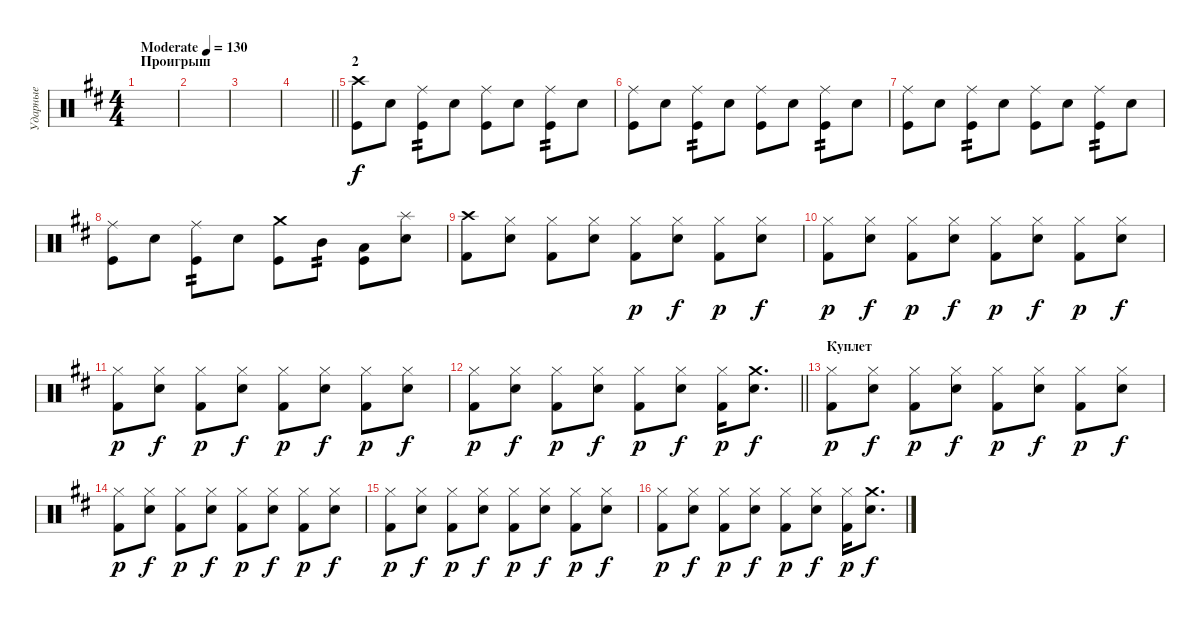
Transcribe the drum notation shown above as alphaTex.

\track ("Ударные" "Ударные") {instrument percussion}
\staff {score}
\articulation defaults
\ts (4 4)
\section ("" "Проигрыш")
\tempo (130 "Moderate")
\clef neutral
\ks bminor
|
|
|
\barLineRight lightlight
|
\section ("" "2")
("Crash high (hit)" "Kick (hit)").8 "Snare (hit) 2".8 ("Ride (middle)" "Kick (hit)").8{tp 2} "Snare (hit) 2".8 ("Ride (middle)" "Kick (hit)").8 "Snare (hit) 2".8 ("Ride (middle)" "Kick (hit)").8{tp 2} "Snare (hit) 2".8 |
("Ride (middle)" "Kick (hit)").8 "Snare (hit) 2".8 ("Ride (middle)" "Kick (hit)").8{tp 2} "Snare (hit) 2".8 ("Ride (middle)" "Kick (hit)").8 "Snare (hit) 2".8 ("Ride (middle)" "Kick (hit)").8{tp 2} "Snare (hit) 2".8 |
("Ride (middle)" "Kick (hit)").8 "Snare (hit) 2".8 ("Ride (middle)" "Kick (hit)").8{tp 2} "Snare (hit) 2".8 ("Ride (middle)" "Kick (hit)").8 "Snare (hit) 2".8 ("Ride (middle)" "Kick (hit)").8{tp 2} "Snare (hit) 2".8 |
("Ride (middle)" "Kick (hit)").8 "Snare (hit) 2".8 ("Ride (middle)" "Kick (hit)").8{tp 2} "Snare (hit) 2".8 ("Crash medium (hit)" "Kick (hit)").8 "Mid Tom (hit)".8{tp 2} ("Low Tom (hit)" "Kick (hit)").8 ("Splash (hit)" "Snare (hit) 2").8 |
("Crash high (hit)" "Kick (hit) 2").8 ("Hi-Hat (closed)" "Snare (hit) 2").8 ("Hi-Hat (closed)" "Kick (hit) 2").8 ("Hi-Hat (closed)" "Snare (hit) 2").8 ("Hi-Hat (closed)" "Kick (hit) 2").8{dy p} ("Hi-Hat (closed)" "Snare (hit) 2").8{dy f} ("Hi-Hat (closed)" "Kick (hit) 2").8{dy p} ("Hi-Hat (closed)" "Snare (hit) 2").8{dy f} |
("Hi-Hat (closed)" "Kick (hit) 2").8{dy p} ("Hi-Hat (closed)" "Snare (hit) 2").8{dy f} ("Hi-Hat (closed)" "Kick (hit) 2").8{dy p} ("Hi-Hat (closed)" "Snare (hit) 2").8{dy f} ("Hi-Hat (closed)" "Kick (hit) 2").8{dy p} ("Hi-Hat (closed)" "Snare (hit) 2").8{dy f} ("Hi-Hat (closed)" "Kick (hit) 2").8{dy p} ("Hi-Hat (closed)" "Snare (hit) 2").8{dy f} |
("Hi-Hat (closed)" "Kick (hit) 2").8{dy p} ("Hi-Hat (closed)" "Snare (hit) 2").8{dy f} ("Hi-Hat (closed)" "Kick (hit) 2").8{dy p} ("Hi-Hat (closed)" "Snare (hit) 2").8{dy f} ("Hi-Hat (closed)" "Kick (hit) 2").8{dy p} ("Hi-Hat (closed)" "Snare (hit) 2").8{dy f} ("Hi-Hat (closed)" "Kick (hit) 2").8{dy p} ("Hi-Hat (closed)" "Snare (hit) 2").8{dy f} |
\barLineRight lightlight
("Hi-Hat (closed)" "Kick (hit) 2").8{dy p} ("Hi-Hat (closed)" "Snare (hit) 2").8{dy f} ("Hi-Hat (closed)" "Kick (hit) 2").8{dy p} ("Hi-Hat (closed)" "Snare (hit) 2").8{dy f} ("Hi-Hat (closed)" "Kick (hit) 2").8{dy p} ("Hi-Hat (closed)" "Snare (hit) 2").8{dy f} ("Hi-Hat (closed)" "Kick (hit) 2").16{dy p} ("Crash medium (hit)" "Snare (hit) 2").8{d dy f} |
\section ("" "Куплет")
("Hi-Hat (closed)" "Kick (hit) 2").8{dy p} ("Hi-Hat (closed)" "Snare (hit) 2").8{dy f} ("Hi-Hat (closed)" "Kick (hit) 2").8{dy p} ("Hi-Hat (closed)" "Snare (hit) 2").8{dy f} ("Hi-Hat (closed)" "Kick (hit) 2").8{dy p} ("Hi-Hat (closed)" "Snare (hit) 2").8{dy f} ("Hi-Hat (closed)" "Kick (hit) 2").8{dy p} ("Hi-Hat (closed)" "Snare (hit) 2").8{dy f} |
("Hi-Hat (closed)" "Kick (hit) 2").8{dy p} ("Hi-Hat (closed)" "Snare (hit) 2").8{dy f} ("Hi-Hat (closed)" "Kick (hit) 2").8{dy p} ("Hi-Hat (closed)" "Snare (hit) 2").8{dy f} ("Hi-Hat (closed)" "Kick (hit) 2").8{dy p} ("Hi-Hat (closed)" "Snare (hit) 2").8{dy f} ("Hi-Hat (closed)" "Kick (hit) 2").8{dy p} ("Hi-Hat (closed)" "Snare (hit) 2").8{dy f} |
("Hi-Hat (closed)" "Kick (hit) 2").8{dy p} ("Hi-Hat (closed)" "Snare (hit) 2").8{dy f} ("Hi-Hat (closed)" "Kick (hit) 2").8{dy p} ("Hi-Hat (closed)" "Snare (hit) 2").8{dy f} ("Hi-Hat (closed)" "Kick (hit) 2").8{dy p} ("Hi-Hat (closed)" "Snare (hit) 2").8{dy f} ("Hi-Hat (closed)" "Kick (hit) 2").8{dy p} ("Hi-Hat (closed)" "Snare (hit) 2").8{dy f} |
("Hi-Hat (closed)" "Kick (hit) 2").8{dy p} ("Hi-Hat (closed)" "Snare (hit) 2").8{dy f} ("Hi-Hat (closed)" "Kick (hit) 2").8{dy p} ("Hi-Hat (closed)" "Snare (hit) 2").8{dy f} ("Hi-Hat (closed)" "Kick (hit) 2").8{dy p} ("Hi-Hat (closed)" "Snare (hit) 2").8{dy f} ("Hi-Hat (closed)" "Kick (hit) 2").16{dy p} ("Crash medium (hit)" "Snare (hit) 2").8{d dy f}
